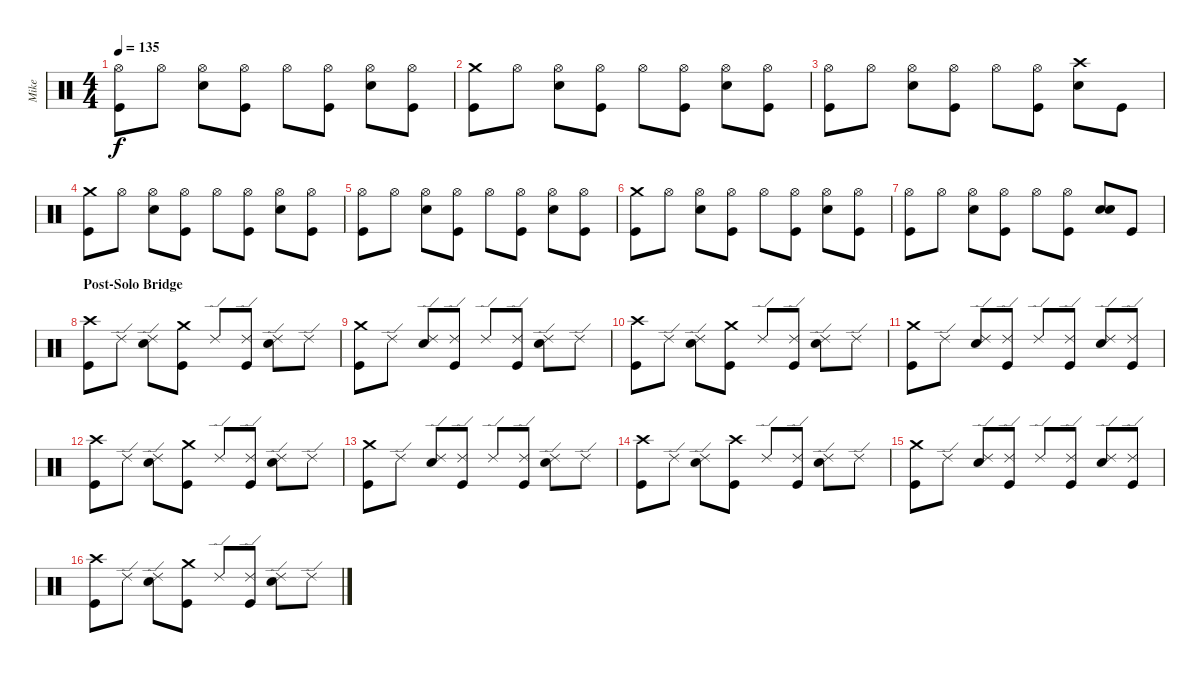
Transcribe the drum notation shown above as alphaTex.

\track ("Mike" "Mike") {instrument percussion}
\staff {score}
\articulation defaults
\ts (4 4)
\tempo 135
\clef neutral
\ks c
("Hi-Hat (open)" "Kick (hit)").8{dy f} "Hi-Hat (open)".8 ("Hi-Hat (open)" "Electric Snare (hit)").8 ("Hi-Hat (open)" "Kick (hit)").8 "Hi-Hat (open)".8 ("Hi-Hat (open)" "Kick (hit)").8 ("Hi-Hat (open)" "Electric Snare (hit)").8 ("Hi-Hat (open)" "Kick (hit)").8 |
("Crash medium (hit)" "Kick (hit)").8 "Hi-Hat (open)".8 ("Hi-Hat (open)" "Electric Snare (hit)").8 ("Hi-Hat (open)" "Kick (hit)").8 "Hi-Hat (open)".8 ("Hi-Hat (open)" "Kick (hit)").8 ("Hi-Hat (open)" "Electric Snare (hit)").8 ("Hi-Hat (open)" "Kick (hit)").8 |
("Hi-Hat (open)" "Kick (hit)").8 "Hi-Hat (open)".8 ("Hi-Hat (open)" "Electric Snare (hit)").8 ("Hi-Hat (open)" "Kick (hit)").8 "Hi-Hat (open)".8 ("Hi-Hat (open)" "Kick (hit)").8 ("Crash high (hit)" "Electric Snare (hit)").8 "Kick (hit)".8 |
("Crash medium (hit)" "Kick (hit)").8 "Hi-Hat (open)".8 ("Hi-Hat (open)" "Electric Snare (hit)").8 ("Hi-Hat (open)" "Kick (hit)").8 "Hi-Hat (open)".8 ("Hi-Hat (open)" "Kick (hit)").8 ("Hi-Hat (open)" "Electric Snare (hit)").8 ("Hi-Hat (open)" "Kick (hit)").8 |
("Hi-Hat (open)" "Kick (hit)").8 "Hi-Hat (open)".8 ("Hi-Hat (open)" "Electric Snare (hit)").8 ("Hi-Hat (open)" "Kick (hit)").8 "Hi-Hat (open)".8 ("Hi-Hat (open)" "Kick (hit)").8 ("Hi-Hat (open)" "Electric Snare (hit)").8 ("Hi-Hat (open)" "Kick (hit)").8 |
("Crash medium (hit)" "Kick (hit)").8 "Hi-Hat (open)".8 ("Hi-Hat (open)" "Electric Snare (hit)").8 ("Hi-Hat (open)" "Kick (hit)").8 "Hi-Hat (open)".8 ("Hi-Hat (open)" "Kick (hit)").8 ("Hi-Hat (open)" "Electric Snare (hit)").8 ("Hi-Hat (open)" "Kick (hit)").8 |
("Hi-Hat (open)" "Kick (hit)").8 "Hi-Hat (open)".8 ("Hi-Hat (open)" "Electric Snare (hit)").8 ("Hi-Hat (open)" "Kick (hit)").8 "Hi-Hat (open)".8 ("Hi-Hat (open)" "Kick (hit)").8 ("Electric Snare (hit)" "Electric Snare (hit)").8{bu 240} "Kick (hit)".8 |
\section ("" "Post-Solo Bridge")
("Crash high (hit)" "Kick (hit)").8 "Ride (edge) 2".8 ("Ride (edge) 2" "Electric Snare (hit)").8 ("Crash medium (hit)" "Kick (hit)").8 "Ride (edge) 2".8 ("Ride (edge) 2" "Kick (hit)").8 ("Ride (edge) 2" "Electric Snare (hit)").8 "Ride (edge) 2".8 |
("Crash medium (hit)" "Kick (hit)").8 "Ride (edge) 2".8 ("Ride (edge) 2" "Electric Snare (hit)").8 ("Ride (edge) 2" "Kick (hit)").8 "Ride (edge) 2".8 ("Ride (edge) 2" "Kick (hit)").8 ("Ride (edge) 2" "Electric Snare (hit)").8 "Ride (edge) 2".8 |
("Crash high (hit)" "Kick (hit)").8 "Ride (edge) 2".8 ("Ride (edge) 2" "Electric Snare (hit)").8 ("Crash medium (hit)" "Kick (hit)").8 "Ride (edge) 2".8 ("Ride (edge) 2" "Kick (hit)").8 ("Ride (edge) 2" "Electric Snare (hit)").8 "Ride (edge) 2".8 |
("Crash medium (hit)" "Kick (hit)").8 "Ride (edge) 2".8 ("Ride (edge) 2" "Electric Snare (hit)").8 ("Ride (edge) 2" "Kick (hit)").8 "Ride (edge) 2".8 ("Ride (edge) 2" "Kick (hit)").8 ("Ride (edge) 2" "Electric Snare (hit)").8 ("Ride (edge) 2" "Kick (hit)").8 |
("Crash high (hit)" "Kick (hit)").8 "Ride (edge) 2".8 ("Ride (edge) 2" "Electric Snare (hit)").8 ("Crash medium (hit)" "Kick (hit)").8 "Ride (edge) 2".8 ("Ride (edge) 2" "Kick (hit)").8 ("Ride (edge) 2" "Electric Snare (hit)").8 "Ride (edge) 2".8 |
("Crash medium (hit)" "Kick (hit)").8 "Ride (edge) 2".8 ("Ride (edge) 2" "Electric Snare (hit)").8 ("Ride (edge) 2" "Kick (hit)").8 "Ride (edge) 2".8 ("Ride (edge) 2" "Kick (hit)").8 ("Ride (edge) 2" "Electric Snare (hit)").8 "Ride (edge) 2".8 |
("Crash high (hit)" "Kick (hit)").8 "Ride (edge) 2".8 ("Ride (edge) 2" "Electric Snare (hit)").8 ("Crash high (hit)" "Kick (hit)").8 "Ride (edge) 2".8 ("Ride (edge) 2" "Kick (hit)").8 ("Ride (edge) 2" "Electric Snare (hit)").8 "Ride (edge) 2".8 |
("Crash medium (hit)" "Kick (hit)").8 "Ride (edge) 2".8 ("Ride (edge) 2" "Electric Snare (hit)").8 ("Ride (edge) 2" "Kick (hit)").8 "Ride (edge) 2".8 ("Ride (edge) 2" "Kick (hit)").8 ("Ride (edge) 2" "Electric Snare (hit)").8 ("Ride (edge) 2" "Kick (hit)").8 |
("Crash high (hit)" "Kick (hit)").8 "Ride (edge) 2".8 ("Ride (edge) 2" "Electric Snare (hit)").8 ("Crash medium (hit)" "Kick (hit)").8 "Ride (edge) 2".8 ("Ride (edge) 2" "Kick (hit)").8 ("Ride (edge) 2" "Electric Snare (hit)").8 "Ride (edge) 2".8
